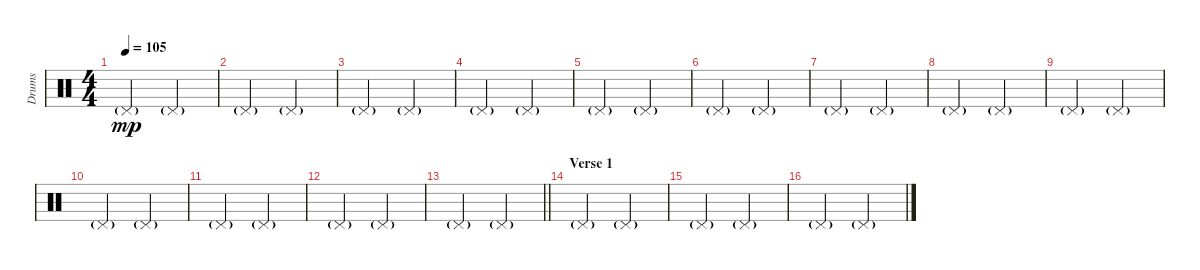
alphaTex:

\track ("Drums" "Drums") {instrument percussion}
\staff {score}
\articulation defaults
\ts (4 4)
\tempo 105
\clef neutral
\ks c "Pedal Hi-Hat (hit)"{g}.2{dy mp} "Pedal Hi-Hat (hit)"{g}.2
|
"Pedal Hi-Hat (hit)"{g}.2 "Pedal Hi-Hat (hit)"{g}.2 |
"Pedal Hi-Hat (hit)"{g}.2 "Pedal Hi-Hat (hit)"{g}.2 |
"Pedal Hi-Hat (hit)"{g}.2 "Pedal Hi-Hat (hit)"{g}.2 |
"Pedal Hi-Hat (hit)"{g}.2 "Pedal Hi-Hat (hit)"{g}.2 |
"Pedal Hi-Hat (hit)"{g}.2 "Pedal Hi-Hat (hit)"{g}.2 |
"Pedal Hi-Hat (hit)"{g}.2 "Pedal Hi-Hat (hit)"{g}.2 |
"Pedal Hi-Hat (hit)"{g}.2 "Pedal Hi-Hat (hit)"{g}.2 |
"Pedal Hi-Hat (hit)"{g}.2 "Pedal Hi-Hat (hit)"{g}.2 |
"Pedal Hi-Hat (hit)"{g}.2 "Pedal Hi-Hat (hit)"{g}.2 |
"Pedal Hi-Hat (hit)"{g}.2 "Pedal Hi-Hat (hit)"{g}.2 |
"Pedal Hi-Hat (hit)"{g}.2 "Pedal Hi-Hat (hit)"{g}.2 |
\barLineRight lightlight "Pedal Hi-Hat (hit)"{g}.2 "Pedal Hi-Hat (hit)"{g}.2
|
\section ("" "Verse 1")
"Pedal Hi-Hat (hit)"{g}.2 "Pedal Hi-Hat (hit)"{g}.2 |
"Pedal Hi-Hat (hit)"{g}.2 "Pedal Hi-Hat (hit)"{g}.2 |
"Pedal Hi-Hat (hit)"{g}.2 "Pedal Hi-Hat (hit)"{g}.2
